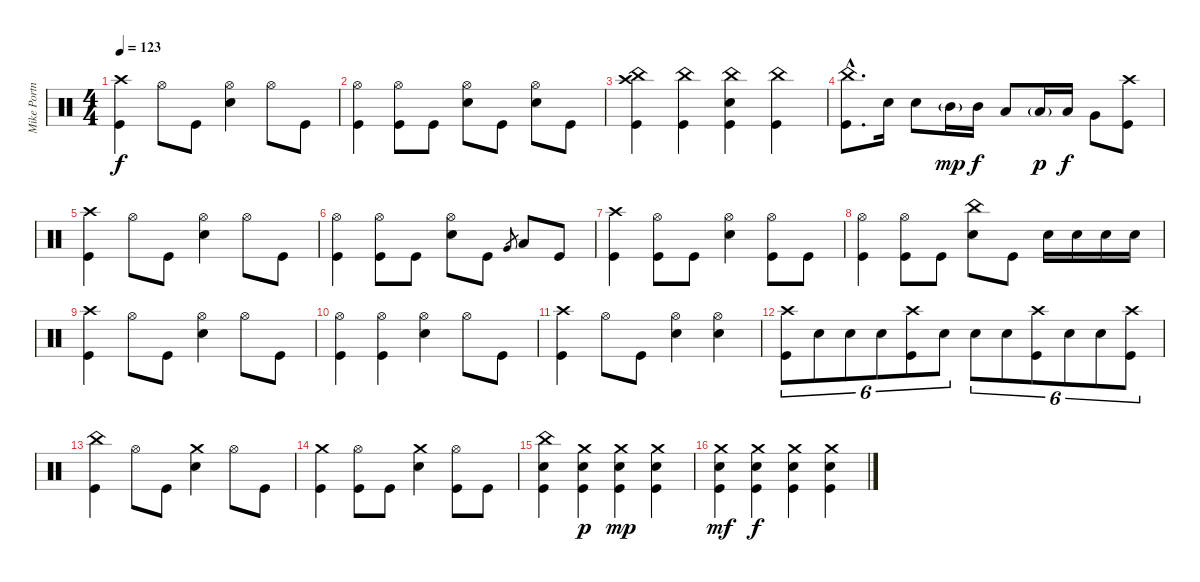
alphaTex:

\track ("Mike Portnoy" "Mike Portn") {instrument percussion}
\staff {score}
\articulation defaults
\ts (4 4)
\tempo 123
\clef neutral
\ks c
("Crash high (hit)" "Kick (hit)").4{dy f} "Hi-Hat (open)".8 "Kick (hit)".8 ("Hi-Hat (open)" "Electric Snare (hit)").4 "Hi-Hat (open)".8 "Kick (hit)".8 |
("Hi-Hat (open)" "Kick (hit)").4 ("Hi-Hat (open)" "Kick (hit)").8 "Kick (hit)".8 ("Hi-Hat (open)" "Electric Snare (hit)").8 "Kick (hit)".8 ("Hi-Hat (open)" "Electric Snare (hit)").8 "Kick (hit)".8 |
("Crash high (hit)" "China (hit)" "Kick (hit)").4 ("China (hit)" "Kick (hit)").4 ("China (hit)" "Electric Snare (hit)" "Kick (hit)").4 ("China (hit)" "Kick (hit)").4 |
("China (hit)"{hac} "Kick (hit)"{hac}).8{d} "Electric Snare (hit)".16 "Electric Snare (hit)".8 "Mid Tom (hit)"{g}.16{dy mp} "Mid Tom (hit)".16{dy f} "Low Tom (hit)".8 "Low Tom (hit)"{g}.16{dy p} "Low Tom (hit)".16{dy f} "Very Low Tom (hit)".8 ("Crash high (hit)" "Kick (hit)").8 |
("Crash high (hit)" "Kick (hit)").4 "Hi-Hat (open)".8 "Kick (hit)".8 ("Hi-Hat (open)" "Electric Snare (hit)").4 "Hi-Hat (open)".8 "Kick (hit)".8 |
("Hi-Hat (open)" "Kick (hit)").4 ("Hi-Hat (open)" "Kick (hit)").8 "Kick (hit)".8 ("Hi-Hat (open)" "Electric Snare (hit)").8 "Kick (hit)".8 "Very Low Tom (hit)".8{gr} "Low Tom (hit)".8 "Kick (hit)".8 |
("Crash high (hit)" "Kick (hit)").4 ("Hi-Hat (open)" "Kick (hit)").8 "Kick (hit)".8 ("Hi-Hat (open)" "Electric Snare (hit)").4 ("Hi-Hat (open)" "Kick (hit)").8 "Kick (hit)".8 |
("Hi-Hat (open)" "Kick (hit)").4 ("Hi-Hat (open)" "Kick (hit)").8 "Kick (hit)".8 ("China (hit)" "Electric Snare (hit)").8 "Kick (hit)".8 "Electric Snare (hit)".16 "Electric Snare (hit)".16 "Electric Snare (hit)".16 "Electric Snare (hit)".16 |
("Crash high (hit)" "Kick (hit)").4 "Hi-Hat (open)".8 "Kick (hit)".8 ("Hi-Hat (open)" "Electric Snare (hit)").4 "Hi-Hat (open)".8 "Kick (hit)".8 |
("Hi-Hat (open)" "Kick (hit)").4 ("Hi-Hat (open)" "Kick (hit)").4 ("Hi-Hat (open)" "Electric Snare (hit)").4 "Hi-Hat (open)".8 "Kick (hit)".8 |
("Crash high (hit)" "Kick (hit)").4 "Hi-Hat (open)".8 "Kick (hit)".8 ("Hi-Hat (open)" "Electric Snare (hit)").4 ("Hi-Hat (open)" "Electric Snare (hit)").4 |
("Crash high (hit)" "Kick (hit)").8{tu (6 4)} "Electric Snare (hit)".8{tu (6 4)} "Electric Snare (hit)".8{tu (6 4)} "Electric Snare (hit)".8{tu (6 4)} ("Crash high (hit)" "Kick (hit)").8{tu (6 4)} "Electric Snare (hit)".8{tu (6 4)} "Electric Snare (hit)".8{tu (6 4)} "Electric Snare (hit)".8{tu (6 4)} ("Crash high (hit)" "Kick (hit)").8{tu (6 4)} "Electric Snare (hit)".8{tu (6 4)} "Electric Snare (hit)".8{tu (6 4)} ("Crash high (hit)" "Kick (hit)").8{tu (6 4)} |
("China (hit)" "Kick (hit)").4 "Hi-Hat (open)".8 "Kick (hit)".8 ("Crash medium (hit)" "Electric Snare (hit)").4 "Hi-Hat (open)".8 "Kick (hit)".8 |
("Crash medium (hit)" "Kick (hit)").4 ("Hi-Hat (open)" "Kick (hit)").8 "Kick (hit)".8 ("Crash medium (hit)" "Electric Snare (hit)").4 ("Hi-Hat (open)" "Kick (hit)").8 "Kick (hit)".8 |
("China (hit)" "Electric Snare (hit)" "Kick (hit)").4 ("Crash medium (hit)" "Electric Snare (hit)" "Kick (hit)").4{dy p} ("Crash medium (hit)" "Electric Snare (hit)" "Kick (hit)").4{dy mp} ("Crash medium (hit)" "Electric Snare (hit)" "Kick (hit)").4 |
("Crash medium (hit)" "Electric Snare (hit)" "Kick (hit)").4{dy mf} ("Crash medium (hit)" "Electric Snare (hit)" "Kick (hit)").4{dy f} ("Crash medium (hit)" "Electric Snare (hit)" "Kick (hit)").4 ("Crash medium (hit)" "Electric Snare (hit)" "Kick (hit)").4
